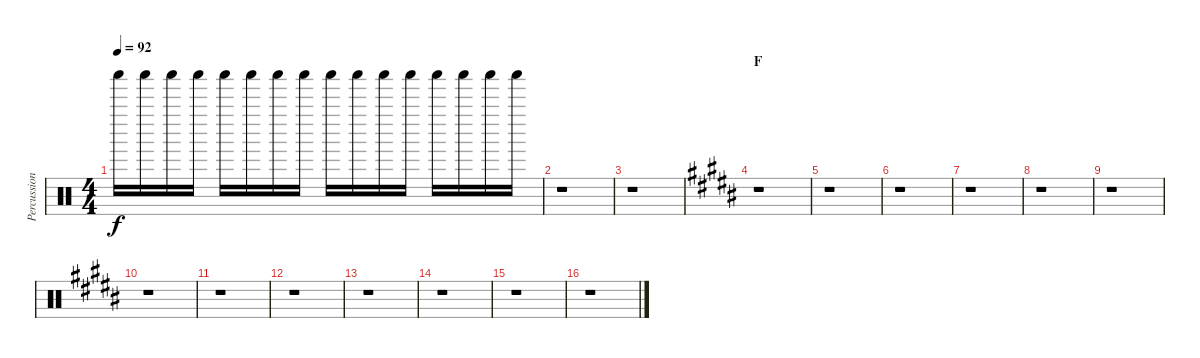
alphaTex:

\track ("Percussions" "Percussion") {instrument percussion}
\staff {score}
\articulation defaults
\ts (4 4)
\tempo 92
\clef neutral
\ks c "Shaker (hit)".16{dy f} "Shaker (hit)".16 "Shaker (hit)".16 "Shaker (hit)".16 "Shaker (hit)".16 "Shaker (hit)".16 "Shaker (hit)".16 "Shaker (hit)".16 "Shaker (hit)".16 "Shaker (hit)".16 "Shaker (hit)".16 "Shaker (hit)".16 "Shaker (hit)".16 "Shaker (hit)".16 "Shaker (hit)".16 "Shaker (hit)".16
|
r.1 |
r.1 |
\section ("" "F")
\ks b
r.1 |
r.1 |
r.1 |
r.1 |
r.1 |
r.1 |
r.1 |
r.1 |
r.1 |
r.1 |
r.1 |
r.1 |
r.1
